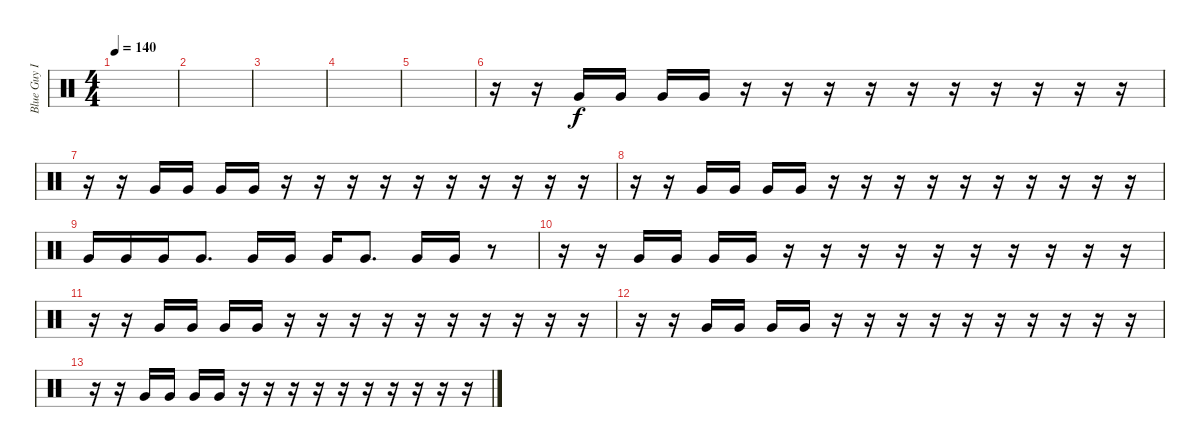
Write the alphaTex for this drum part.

\track ("Blue Guy I" "Blue Guy I") {instrument percussion}
\staff {score}
\articulation defaults
\ts (4 4)
\tempo 140
\clef neutral
\ks c
|
|
|
|
|
r.16 r.16 "Very Low Tom (hit)".16 "Very Low Tom (hit)".16 "Very Low Tom (hit)".16 "Very Low Tom (hit)".16 r.16 r.16 r.16 r.16 r.16 r.16 r.16 r.16 r.16 r.16 |
r.16 r.16 "Very Low Tom (hit)".16 "Very Low Tom (hit)".16 "Very Low Tom (hit)".16 "Very Low Tom (hit)".16 r.16 r.16 r.16 r.16 r.16 r.16 r.16 r.16 r.16 r.16 |
r.16 r.16 "Very Low Tom (hit)".16 "Very Low Tom (hit)".16 "Very Low Tom (hit)".16 "Very Low Tom (hit)".16 r.16 r.16 r.16 r.16 r.16 r.16 r.16 r.16 r.16 r.16 |
"Very Low Tom (hit)".16 "Very Low Tom (hit)".16 "Very Low Tom (hit)".16 "Very Low Tom (hit)".8{d} "Very Low Tom (hit)".16 "Very Low Tom (hit)".16 "Very Low Tom (hit)".16 "Very Low Tom (hit)".8{d} "Very Low Tom (hit)".16 "Very Low Tom (hit)".16 r.8 |
r.16 r.16 "Very Low Tom (hit)".16 "Very Low Tom (hit)".16 "Very Low Tom (hit)".16 "Very Low Tom (hit)".16 r.16 r.16 r.16 r.16 r.16 r.16 r.16 r.16 r.16 r.16 |
r.16 r.16 "Very Low Tom (hit)".16 "Very Low Tom (hit)".16 "Very Low Tom (hit)".16 "Very Low Tom (hit)".16 r.16 r.16 r.16 r.16 r.16 r.16 r.16 r.16 r.16 r.16 |
r.16 r.16 "Very Low Tom (hit)".16 "Very Low Tom (hit)".16 "Very Low Tom (hit)".16 "Very Low Tom (hit)".16 r.16 r.16 r.16 r.16 r.16 r.16 r.16 r.16 r.16 r.16 |
r.16 r.16 "Very Low Tom (hit)".16 "Very Low Tom (hit)".16 "Very Low Tom (hit)".16 "Very Low Tom (hit)".16 r.16 r.16 r.16 r.16 r.16 r.16 r.16 r.16 r.16 r.16
